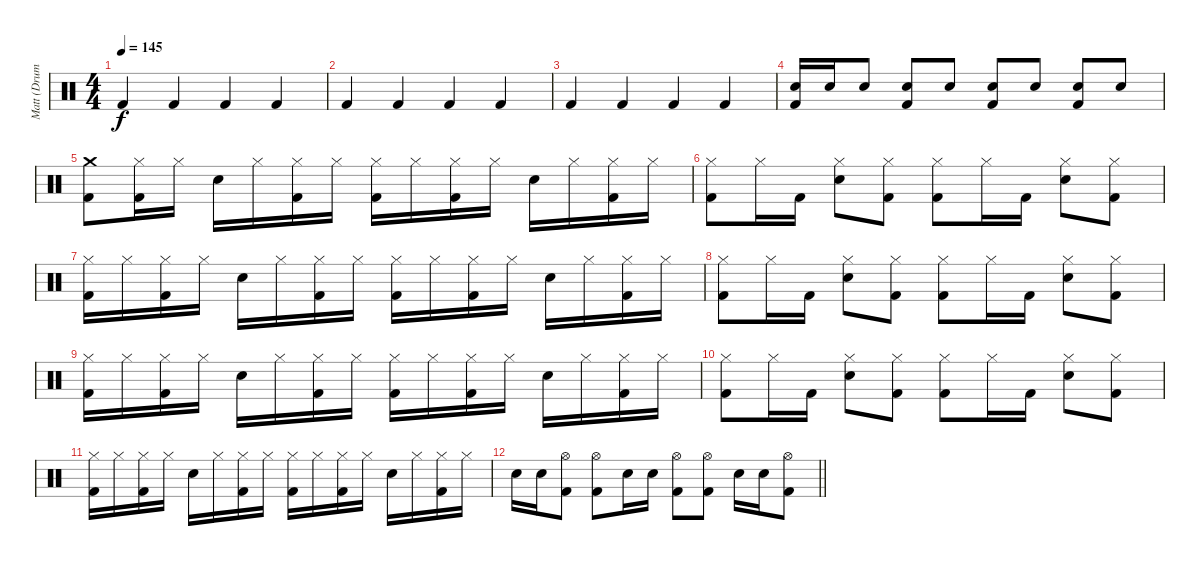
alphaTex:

\track ("Matt (Drums)" "Matt (Drum") {instrument percussion}
\staff {score}
\articulation defaults
\ts (4 4)
\tempo 145
\clef neutral
\ks c "Kick (hit) 2".4{dy f} "Kick (hit) 2".4 "Kick (hit) 2".4 "Kick (hit) 2".4
|
"Kick (hit) 2".4 "Kick (hit) 2".4 "Kick (hit) 2".4 "Kick (hit) 2".4 |
"Kick (hit) 2".4 "Kick (hit) 2".4 "Kick (hit) 2".4 "Kick (hit) 2".4 |
("Electric Snare (hit)" "Kick (hit) 2").16 "Electric Snare (hit)".16 "Electric Snare (hit)".8 ("Electric Snare (hit)" "Kick (hit) 2").8 "Electric Snare (hit)".8 ("Electric Snare (hit)" "Kick (hit) 2").8 "Electric Snare (hit)".8 ("Electric Snare (hit)" "Kick (hit) 2").8 "Electric Snare (hit)".8 |
("Crash medium (hit)" "Kick (hit) 2").8 ("Hi-Hat (closed)" "Kick (hit) 2").16 "Hi-Hat (closed)".16 "Electric Snare (hit)".16 "Hi-Hat (closed)".16 ("Hi-Hat (closed)" "Kick (hit) 2").16 "Hi-Hat (closed)".16 ("Hi-Hat (closed)" "Kick (hit) 2").16 "Hi-Hat (closed)".16 ("Hi-Hat (closed)" "Kick (hit) 2").16 "Hi-Hat (closed)".16 "Electric Snare (hit)".16 "Hi-Hat (closed)".16 ("Hi-Hat (closed)" "Kick (hit) 2").16 "Hi-Hat (closed)".16 |
("Hi-Hat (closed)" "Kick (hit) 2").8 "Hi-Hat (closed)".16 "Kick (hit) 2".16 ("Hi-Hat (closed)" "Electric Snare (hit)").8 ("Hi-Hat (closed)" "Kick (hit) 2").8 ("Hi-Hat (closed)" "Kick (hit) 2").8 "Hi-Hat (closed)".16 "Kick (hit) 2".16 ("Hi-Hat (closed)" "Electric Snare (hit)").8 ("Hi-Hat (closed)" "Kick (hit) 2").8 |
("Hi-Hat (closed)" "Kick (hit) 2").16 "Hi-Hat (closed)".16 ("Hi-Hat (closed)" "Kick (hit) 2").16 "Hi-Hat (closed)".16 "Electric Snare (hit)".16 "Hi-Hat (closed)".16 ("Hi-Hat (closed)" "Kick (hit) 2").16 "Hi-Hat (closed)".16 ("Hi-Hat (closed)" "Kick (hit) 2").16 "Hi-Hat (closed)".16 ("Hi-Hat (closed)" "Kick (hit) 2").16 "Hi-Hat (closed)".16 "Electric Snare (hit)".16 "Hi-Hat (closed)".16 ("Hi-Hat (closed)" "Kick (hit) 2").16 "Hi-Hat (closed)".16 |
("Hi-Hat (closed)" "Kick (hit) 2").8 "Hi-Hat (closed)".16 "Kick (hit) 2".16 ("Hi-Hat (closed)" "Electric Snare (hit)").8 ("Hi-Hat (closed)" "Kick (hit) 2").8 ("Hi-Hat (closed)" "Kick (hit) 2").8 "Hi-Hat (closed)".16 "Kick (hit) 2".16 ("Hi-Hat (closed)" "Electric Snare (hit)").8 ("Hi-Hat (closed)" "Kick (hit) 2").8 |
("Hi-Hat (closed)" "Kick (hit) 2").16 "Hi-Hat (closed)".16 ("Hi-Hat (closed)" "Kick (hit) 2").16 "Hi-Hat (closed)".16 "Electric Snare (hit)".16 "Hi-Hat (closed)".16 ("Hi-Hat (closed)" "Kick (hit) 2").16 "Hi-Hat (closed)".16 ("Hi-Hat (closed)" "Kick (hit) 2").16 "Hi-Hat (closed)".16 ("Hi-Hat (closed)" "Kick (hit) 2").16 "Hi-Hat (closed)".16 "Electric Snare (hit)".16 "Hi-Hat (closed)".16 ("Hi-Hat (closed)" "Kick (hit) 2").16 "Hi-Hat (closed)".16 |
("Hi-Hat (closed)" "Kick (hit) 2").8 "Hi-Hat (closed)".16 "Kick (hit) 2".16 ("Hi-Hat (closed)" "Electric Snare (hit)").8 ("Hi-Hat (closed)" "Kick (hit) 2").8 ("Hi-Hat (closed)" "Kick (hit) 2").8 "Hi-Hat (closed)".16 "Kick (hit) 2".16 ("Hi-Hat (closed)" "Electric Snare (hit)").8 ("Hi-Hat (closed)" "Kick (hit) 2").8 |
("Hi-Hat (closed)" "Kick (hit) 2").16 "Hi-Hat (closed)".16 ("Hi-Hat (closed)" "Kick (hit) 2").16 "Hi-Hat (closed)".16 "Electric Snare (hit)".16 "Hi-Hat (closed)".16 ("Hi-Hat (closed)" "Kick (hit) 2").16 "Hi-Hat (closed)".16 ("Hi-Hat (closed)" "Kick (hit) 2").16 "Hi-Hat (closed)".16 ("Hi-Hat (closed)" "Kick (hit) 2").16 "Hi-Hat (closed)".16 "Electric Snare (hit)".16 "Hi-Hat (closed)".16 ("Hi-Hat (closed)" "Kick (hit) 2").16 "Hi-Hat (closed)".16 |
\barLineRight lightlight "Electric Snare (hit)".16 "Electric Snare (hit)".16
("Hi-Hat (open)" "Kick (hit) 2").8 ("Hi-Hat (open)" "Kick (hit) 2").8 "Electric Snare (hit)".16 "Electric Snare (hit)".16 ("Hi-Hat (open)" "Kick (hit) 2").8 ("Hi-Hat (open)" "Kick (hit) 2").8 "Electric Snare (hit)".16 "Electric Snare (hit)".16 ("Hi-Hat (open)" "Kick (hit) 2").8
